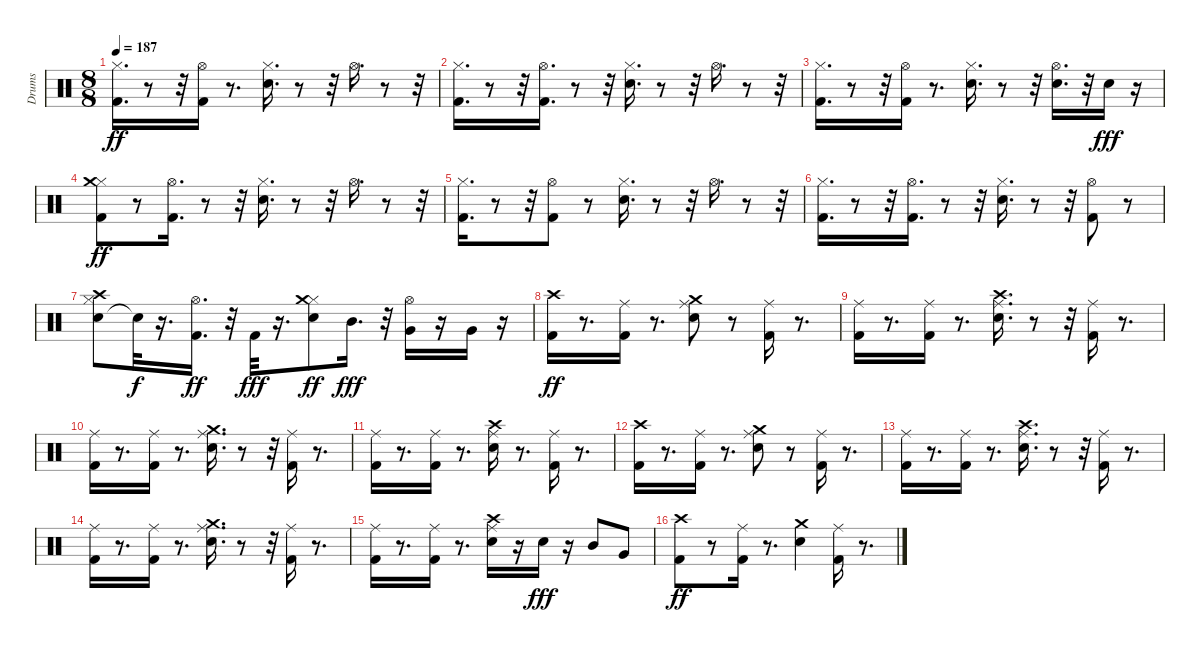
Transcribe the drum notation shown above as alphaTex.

\track ("Drums" "Drums") {instrument percussion}
\staff {score}
\articulation defaults
\ts (8 8)
\tempo 187
\clef neutral
\ks c
("Kick (hit) 2" "Hi-Hat (closed)").16{d dy ff} r.8 r.32 ("Kick (hit) 2" "Hi-Hat (open)").16 r.8{d} ("Snare (hit) 2" "Hi-Hat (closed)").16{d} r.8 r.32 "Hi-Hat (open)".16{d} r.8 r.32 |
("Kick (hit) 2" "Hi-Hat (closed)").16{d} r.8 r.32 ("Kick (hit) 2" "Hi-Hat (open)").16{d} r.8 r.32 ("Snare (hit) 2" "Hi-Hat (closed)").16{d} r.8 r.32 "Hi-Hat (open)".16{d} r.8 r.32 |
("Kick (hit) 2" "Hi-Hat (closed)").16{d} r.8 r.32 ("Kick (hit) 2" "Hi-Hat (open)").16 r.8{d} ("Snare (hit) 2" "Hi-Hat (closed)").16{d} r.8 r.32 ("Snare (hit) 2" "Hi-Hat (open)").16{d} r.32 "Snare (hit) 2".16{dy fff} r.16 |
("Kick (hit) 2" "Hi-Hat (closed)" "Crash medium (hit)").8{dy ff} r.8 ("Kick (hit) 2" "Hi-Hat (open)").16{d} r.8 r.32 ("Snare (hit) 2" "Hi-Hat (closed)").16{d} r.8 r.32 "Hi-Hat (open)".16{d} r.8 r.32 |
("Kick (hit) 2" "Hi-Hat (closed)").16{d} r.8 r.32 ("Kick (hit) 2" "Hi-Hat (open)").8 r.8 ("Snare (hit) 2" "Hi-Hat (closed)").16{d} r.8 r.32 "Hi-Hat (open)".16{d} r.8 r.32 |
("Kick (hit) 2" "Hi-Hat (closed)").16{d} r.8 r.32 ("Kick (hit) 2" "Hi-Hat (open)").16{d} r.8 r.32 ("Snare (hit) 2" "Hi-Hat (closed)").16{d} r.8 r.32 ("Kick (hit) 2" "Hi-Hat (open)").8 r.8 |
("Snare (hit) 2" "Hi-Hat (closed)" "Crash high (hit)").8 "Snare (hit)"{t}.32{dy f} r.16{d} ("Kick (hit) 2" "Hi-Hat (open)").16{d dy ff} r.32 "Kick (hit) 2".32{dy fff} r.16{d} ("Snare (hit) 2" "Hi-Hat (closed)" "Crash medium (hit)").8{dy ff} "Mid Tom (hit)".16{d dy fff} r.32 ("Hi-Hat (open)" "Very Low Tom (hit)").16 r.16 "Very Low Tom (hit)".16 r.16 |
("Kick (hit) 2" "Crash high (hit)").16{dy ff} r.8{d} ("Kick (hit) 2" "Ride (middle)").16 r.8{d} ("Snare (hit) 2" "Ride (middle)" "Crash medium (hit)").8 r.8 ("Kick (hit) 2" "Ride (middle)").16 r.8{d} |
("Kick (hit) 2" "Ride (middle)").16 r.8{d} ("Kick (hit) 2" "Ride (middle)").16 r.8{d} ("Snare (hit) 2" "Ride (middle)" "Crash high (hit)").16{d} r.8 r.32 ("Kick (hit) 2" "Ride (middle)").16 r.8{d} |
("Kick (hit) 2" "Ride (middle)").16 r.8{d} ("Kick (hit) 2" "Ride (middle)").16 r.8{d} ("Snare (hit) 2" "Ride (middle)" "Crash medium (hit)").16{d} r.8 r.32 ("Kick (hit) 2" "Ride (middle)").16 r.8{d} |
("Kick (hit) 2" "Ride (middle)").16 r.8{d} ("Kick (hit) 2" "Ride (middle)").16 r.8{d} ("Snare (hit) 2" "Ride (middle)" "Crash high (hit)").16 r.8{d} ("Kick (hit) 2" "Ride (middle)").16 r.8{d} |
("Kick (hit) 2" "Crash high (hit)").16 r.8{d} ("Kick (hit) 2" "Ride (middle)").16 r.8{d} ("Snare (hit) 2" "Ride (middle)" "Crash medium (hit)").8 r.8 ("Kick (hit) 2" "Ride (middle)").16 r.8{d} |
("Kick (hit) 2" "Ride (middle)").16 r.8{d} ("Kick (hit) 2" "Ride (middle)").16 r.8{d} ("Snare (hit) 2" "Ride (middle)" "Crash high (hit)").16{d} r.8 r.32 ("Kick (hit) 2" "Ride (middle)").16 r.8{d} |
("Kick (hit) 2" "Ride (middle)").16 r.8{d} ("Kick (hit) 2" "Ride (middle)").16 r.8{d} ("Snare (hit) 2" "Ride (middle)" "Crash medium (hit)").16{d} r.8 r.32 ("Kick (hit) 2" "Ride (middle)").16 r.8{d} |
("Kick (hit) 2" "Ride (middle)").16 r.8{d} ("Kick (hit) 2" "Ride (middle)").16 r.8{d} ("Snare (hit) 2" "Ride (middle)" "Crash high (hit)").16 r.16 "Snare (hit) 2".16{dy fff} r.16 "Mid Tom (hit)".8 "Very Low Tom (hit)".8 |
("Kick (hit) 2" "Crash high (hit)").8{dy ff} r.8 ("Kick (hit) 2" "Ride (middle)").16 r.8{d} ("Snare (hit) 2" "Crash medium (hit)").4 ("Kick (hit) 2" "Ride (middle)").16 r.8{d}
